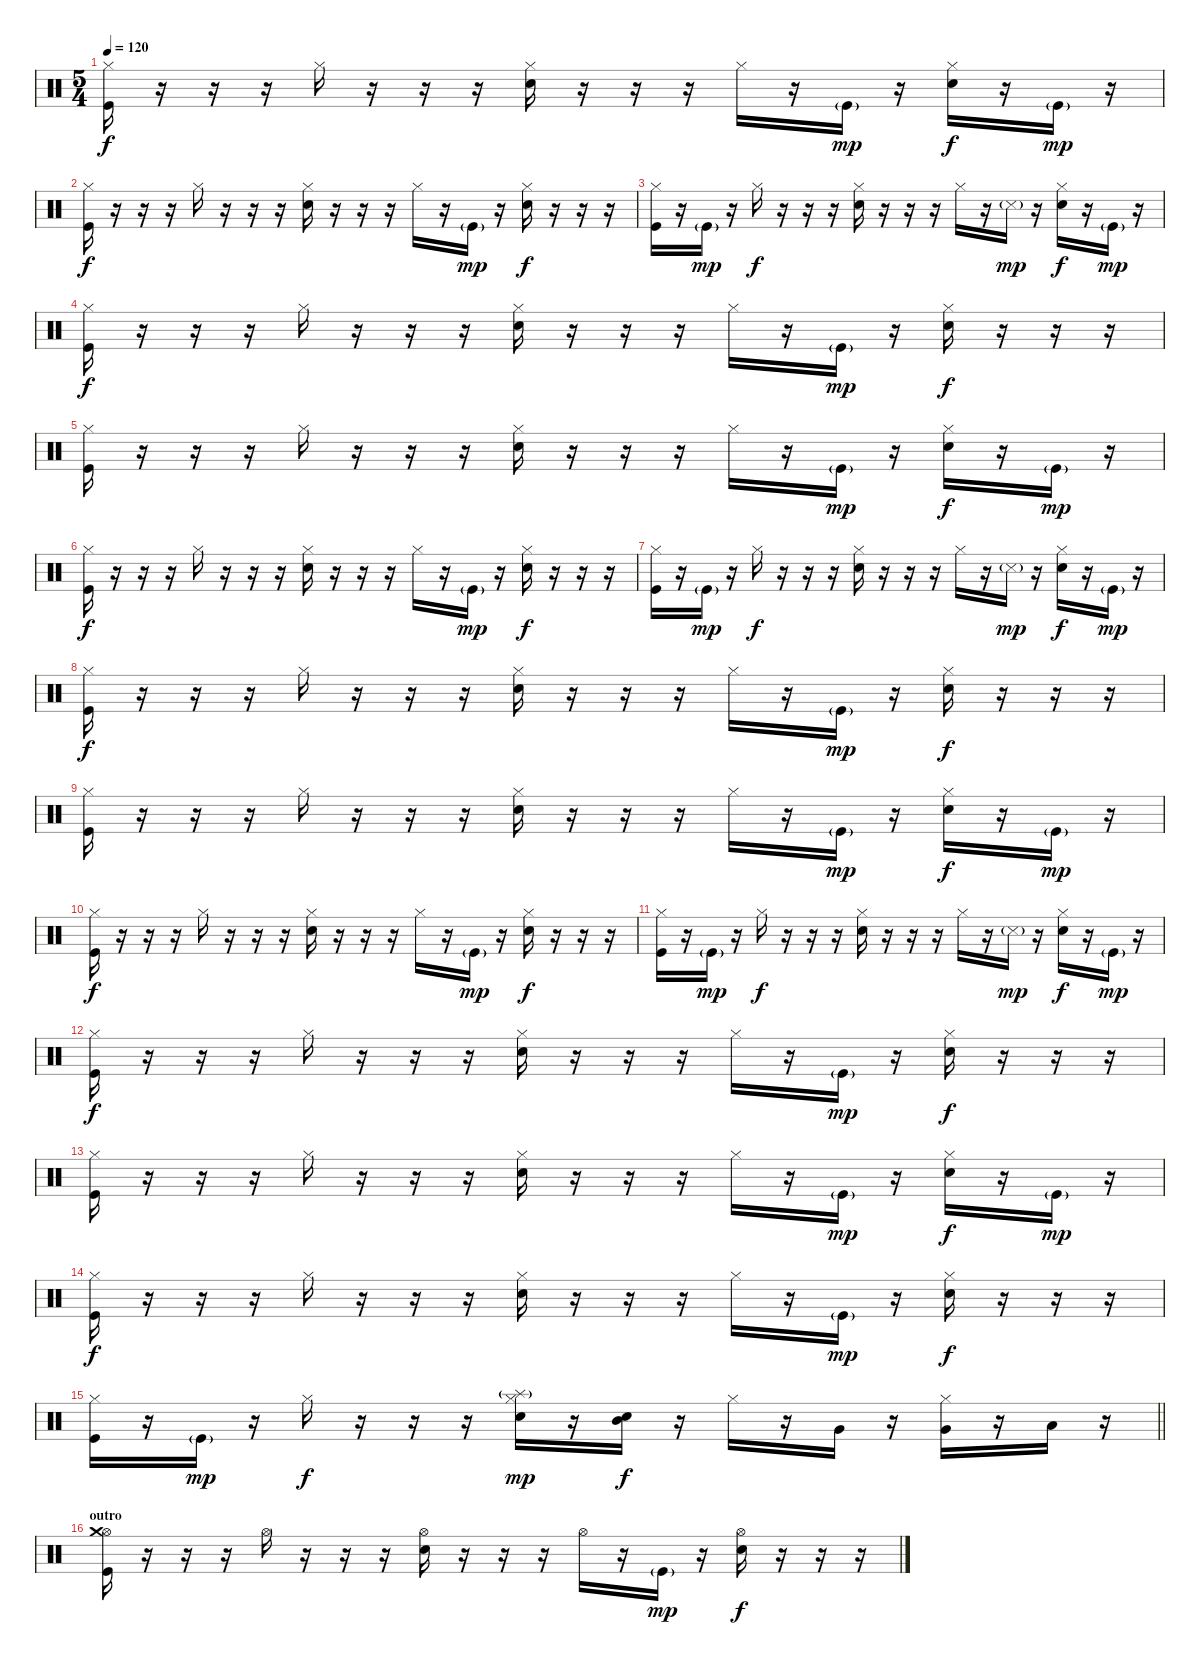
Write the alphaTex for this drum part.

\track "" {instrument percussion}
\staff {score}
\articulation defaults
\ts (5 4)
\tempo 120
\clef neutral
\ks c
("Kick (hit)" "Hi-Hat (closed)").16{dy f} r.16 r.16 r.16 "Hi-Hat (closed)".16 r.16 r.16 r.16 ("Snare (hit) 2" "Hi-Hat (closed)").16 r.16 r.16 r.16 "Hi-Hat (closed)".16 r.16 "Kick (hit)"{g}.16{dy mp} r.16 ("Snare (hit) 2" "Hi-Hat (closed)").16{dy f} r.16 "Kick (hit)"{g}.16{dy mp} r.16 |
("Kick (hit)" "Hi-Hat (closed)").16{dy f} r.16 r.16 r.16 "Hi-Hat (closed)".16 r.16 r.16 r.16 ("Snare (hit) 2" "Hi-Hat (closed)").16 r.16 r.16 r.16 "Hi-Hat (closed)".16 r.16 "Kick (hit)"{g}.16{dy mp} r.16 ("Snare (hit) 2" "Hi-Hat (closed)").16{dy f} r.16 r.16 r.16 |
("Kick (hit)" "Hi-Hat (closed)").16 r.16 "Kick (hit)"{g}.16{dy mp} r.16 "Hi-Hat (closed)".16{dy f} r.16 r.16 r.16 ("Snare (hit) 2" "Hi-Hat (closed)").16 r.16 r.16 r.16 "Hi-Hat (closed)".16 r.16 "Snare (side stick) 3"{g}.16{dy mp} r.16 ("Snare (hit) 2" "Hi-Hat (closed)").16{dy f} r.16 "Kick (hit)"{g}.16{dy mp} r.16 |
("Kick (hit)" "Hi-Hat (closed)").16{dy f} r.16 r.16 r.16 "Hi-Hat (closed)".16 r.16 r.16 r.16 ("Snare (hit) 2" "Hi-Hat (closed)").16 r.16 r.16 r.16 "Hi-Hat (closed)".16 r.16 "Kick (hit)"{g}.16{dy mp} r.16 ("Snare (hit) 2" "Hi-Hat (closed)").16{dy f} r.16 r.16 r.16 |
("Kick (hit)" "Hi-Hat (closed)").16 r.16 r.16 r.16 "Hi-Hat (closed)".16 r.16 r.16 r.16 ("Snare (hit) 2" "Hi-Hat (closed)").16 r.16 r.16 r.16 "Hi-Hat (closed)".16 r.16 "Kick (hit)"{g}.16{dy mp} r.16 ("Snare (hit) 2" "Hi-Hat (closed)").16{dy f} r.16 "Kick (hit)"{g}.16{dy mp} r.16 |
("Kick (hit)" "Hi-Hat (closed)").16{dy f} r.16 r.16 r.16 "Hi-Hat (closed)".16 r.16 r.16 r.16 ("Snare (hit) 2" "Hi-Hat (closed)").16 r.16 r.16 r.16 "Hi-Hat (closed)".16 r.16 "Kick (hit)"{g}.16{dy mp} r.16 ("Snare (hit) 2" "Hi-Hat (closed)").16{dy f} r.16 r.16 r.16 |
("Kick (hit)" "Hi-Hat (closed)").16 r.16 "Kick (hit)"{g}.16{dy mp} r.16 "Hi-Hat (closed)".16{dy f} r.16 r.16 r.16 ("Snare (hit) 2" "Hi-Hat (closed)").16 r.16 r.16 r.16 "Hi-Hat (closed)".16 r.16 "Snare (side stick) 3"{g}.16{dy mp} r.16 ("Snare (hit) 2" "Hi-Hat (closed)").16{dy f} r.16 "Kick (hit)"{g}.16{dy mp} r.16 |
("Kick (hit)" "Hi-Hat (closed)").16{dy f} r.16 r.16 r.16 "Hi-Hat (closed)".16 r.16 r.16 r.16 ("Snare (hit) 2" "Hi-Hat (closed)").16 r.16 r.16 r.16 "Hi-Hat (closed)".16 r.16 "Kick (hit)"{g}.16{dy mp} r.16 ("Snare (hit) 2" "Hi-Hat (closed)").16{dy f} r.16 r.16 r.16 |
("Kick (hit)" "Hi-Hat (closed)").16 r.16 r.16 r.16 "Hi-Hat (closed)".16 r.16 r.16 r.16 ("Snare (hit) 2" "Hi-Hat (closed)").16 r.16 r.16 r.16 "Hi-Hat (closed)".16 r.16 "Kick (hit)"{g}.16{dy mp} r.16 ("Snare (hit) 2" "Hi-Hat (closed)").16{dy f} r.16 "Kick (hit)"{g}.16{dy mp} r.16 |
("Kick (hit)" "Hi-Hat (closed)").16{dy f} r.16 r.16 r.16 "Hi-Hat (closed)".16 r.16 r.16 r.16 ("Snare (hit) 2" "Hi-Hat (closed)").16 r.16 r.16 r.16 "Hi-Hat (closed)".16 r.16 "Kick (hit)"{g}.16{dy mp} r.16 ("Snare (hit) 2" "Hi-Hat (closed)").16{dy f} r.16 r.16 r.16 |
("Kick (hit)" "Hi-Hat (closed)").16 r.16 "Kick (hit)"{g}.16{dy mp} r.16 "Hi-Hat (closed)".16{dy f} r.16 r.16 r.16 ("Snare (hit) 2" "Hi-Hat (closed)").16 r.16 r.16 r.16 "Hi-Hat (closed)".16 r.16 "Snare (side stick) 3"{g}.16{dy mp} r.16 ("Snare (hit) 2" "Hi-Hat (closed)").16{dy f} r.16 "Kick (hit)"{g}.16{dy mp} r.16 |
("Kick (hit)" "Hi-Hat (closed)").16{dy f} r.16 r.16 r.16 "Hi-Hat (closed)".16 r.16 r.16 r.16 ("Snare (hit) 2" "Hi-Hat (closed)").16 r.16 r.16 r.16 "Hi-Hat (closed)".16 r.16 "Kick (hit)"{g}.16{dy mp} r.16 ("Snare (hit) 2" "Hi-Hat (closed)").16{dy f} r.16 r.16 r.16 |
("Kick (hit)" "Hi-Hat (closed)").16 r.16 r.16 r.16 "Hi-Hat (closed)".16 r.16 r.16 r.16 ("Snare (hit) 2" "Hi-Hat (closed)").16 r.16 r.16 r.16 "Hi-Hat (closed)".16 r.16 "Kick (hit)"{g}.16{dy mp} r.16 ("Snare (hit) 2" "Hi-Hat (closed)").16{dy f} r.16 "Kick (hit)"{g}.16{dy mp} r.16 |
("Kick (hit)" "Hi-Hat (closed)").16{dy f} r.16 r.16 r.16 "Hi-Hat (closed)".16 r.16 r.16 r.16 ("Snare (hit) 2" "Hi-Hat (closed)").16 r.16 r.16 r.16 "Hi-Hat (closed)".16 r.16 "Kick (hit)"{g}.16{dy mp} r.16 ("Snare (hit) 2" "Hi-Hat (closed)").16{dy f} r.16 r.16 r.16 |
\barLineRight lightlight
("Kick (hit)" "Hi-Hat (closed)").16 r.16 "Kick (hit)"{g}.16{dy mp} r.16 "Hi-Hat (closed)".16{dy f} r.16 r.16 r.16 ("Snare (hit) 2" "Hi-Hat (closed)" "Splash (hit)"{g}).16{dy mp} r.16 ("Snare (hit) 2" "Mid Tom (hit)").16{dy f} r.16 "Hi-Hat (closed)".16 r.16 "Very Low Tom (hit)".16 r.16 ("Very Low Tom (hit)" "Hi-Hat (closed)").16 r.16 "Low Floor Tom (hit)".16 r.16 |
\section ("" "outro")
("Kick (hit)" "Hi-Hat (open)" "Crash medium (hit)").16 r.16 r.16 r.16 "Hi-Hat (open)".16 r.16 r.16 r.16 ("Snare (hit) 2" "Hi-Hat (open)").16 r.16 r.16 r.16 "Hi-Hat (open)".16 r.16 "Kick (hit)"{g}.16{dy mp} r.16 ("Snare (hit) 2" "Hi-Hat (open)").16{dy f} r.16 r.16 r.16
